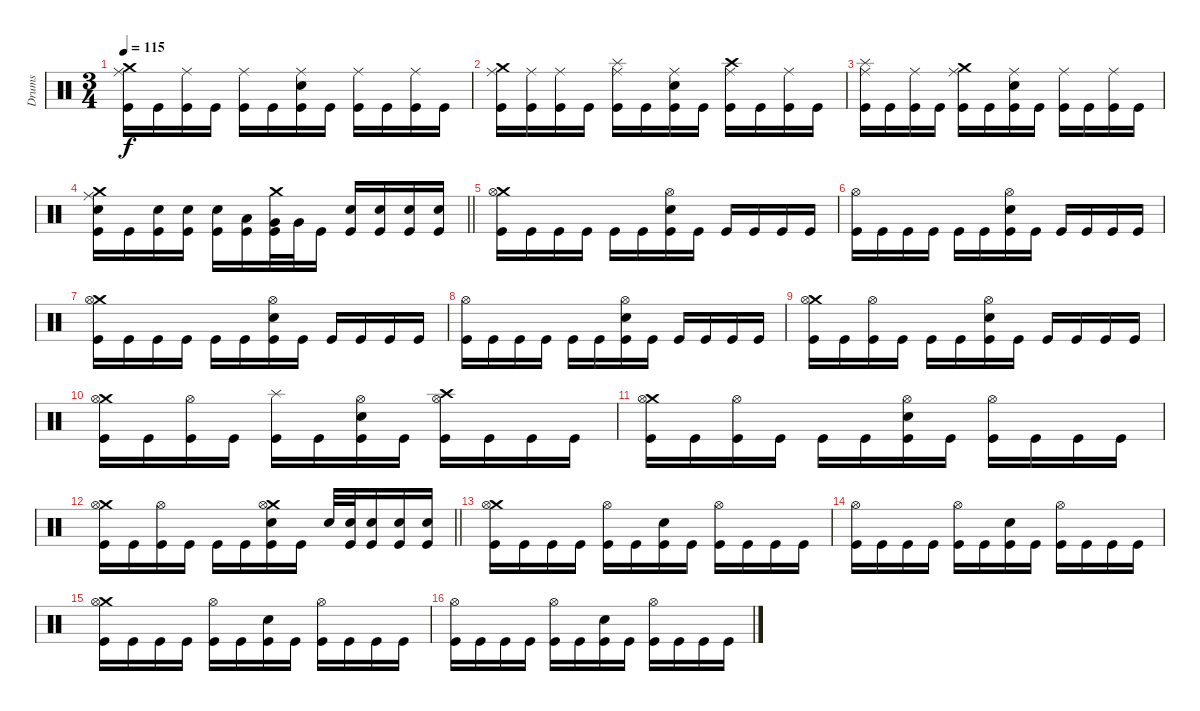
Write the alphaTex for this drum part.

\track ("Drums" "Drums") {instrument percussion}
\staff {score}
\articulation defaults
\ts (3 4)
\tempo 115
\clef neutral
\ks c
("Crash medium (hit)" "Ride (middle)" "Kick (hit)").16{dy f} "Kick (hit)".16 ("Ride (middle)" "Kick (hit)").16 "Kick (hit)".16 ("Ride (middle)" "Kick (hit)").16 "Kick (hit)".16 ("Ride (middle)" "Electric Snare (hit)" "Kick (hit)").16 "Kick (hit)".16 ("Ride (middle)" "Kick (hit)").16 "Kick (hit)".16 ("Ride (middle)" "Kick (hit)").16 "Kick (hit)".16 |
("Crash medium (hit)" "Ride (middle)" "Kick (hit)").16 ("Ride (middle)" "Kick (hit)").16 ("Ride (middle)" "Kick (hit)").16 "Kick (hit)".16 ("Splash (hit)" "Ride (middle)" "Kick (hit)").16 "Kick (hit)".16 ("Ride (middle)" "Electric Snare (hit)" "Kick (hit)").16 "Kick (hit)".16 ("Crash high (hit)" "Ride (middle)" "Kick (hit)").16 "Kick (hit)".16 ("Ride (middle)" "Kick (hit)").16 "Kick (hit)".16 |
("Splash (hit)" "Ride (middle)" "Kick (hit)").16 "Kick (hit)".16 ("Ride (middle)" "Kick (hit)").16 "Kick (hit)".16 ("Crash medium (hit)" "Ride (middle)" "Kick (hit)").16 "Kick (hit)".16 ("Ride (middle)" "Electric Snare (hit)" "Kick (hit)").16 "Kick (hit)".16 ("Ride (middle)" "Kick (hit)").16 "Kick (hit)".16 ("Ride (middle)" "Kick (hit)").16 "Kick (hit)".16 |
\barLineRight lightlight
("Crash medium (hit)" "Electric Snare (hit)" "Ride (middle)" "Kick (hit)").16 "Kick (hit)".16 ("Electric Snare (hit)" "Kick (hit)").16 ("Electric Snare (hit)" "Kick (hit)").16 ("Electric Snare (hit)" "Kick (hit)").16 ("Low Tom (hit)" "Kick (hit)").16 ("Crash medium (hit)" "Very Low Tom (hit)" "Kick (hit)").32 "Very Low Tom (hit)".32 "Kick (hit)".16 ("Electric Snare (hit)" "Kick (hit)").16 ("Electric Snare (hit)" "Kick (hit)").16 ("Electric Snare (hit)" "Kick (hit)").16 ("Electric Snare (hit)" "Kick (hit)").16 |
("Crash medium (hit)" "Hi-Hat (open)" "Kick (hit)").16 "Kick (hit)".16 "Kick (hit)".16 "Kick (hit)".16 "Kick (hit)".16 "Kick (hit)".16 ("Hi-Hat (open)" "Electric Snare (hit)" "Kick (hit)").16 "Kick (hit)".16 "Kick (hit)".16 "Kick (hit)".16 "Kick (hit)".16 "Kick (hit)".16 |
("Hi-Hat (open)" "Kick (hit)").16 "Kick (hit)".16 "Kick (hit)".16 "Kick (hit)".16 "Kick (hit)".16 "Kick (hit)".16 ("Hi-Hat (open)" "Electric Snare (hit)" "Kick (hit)").16 "Kick (hit)".16 "Kick (hit)".16 "Kick (hit)".16 "Kick (hit)".16 "Kick (hit)".16 |
("Crash medium (hit)" "Hi-Hat (open)" "Kick (hit)").16 "Kick (hit)".16 "Kick (hit)".16 "Kick (hit)".16 "Kick (hit)".16 "Kick (hit)".16 ("Hi-Hat (open)" "Electric Snare (hit)" "Kick (hit)").16 "Kick (hit)".16 "Kick (hit)".16 "Kick (hit)".16 "Kick (hit)".16 "Kick (hit)".16 |
("Hi-Hat (open)" "Kick (hit)").16 "Kick (hit)".16 "Kick (hit)".16 "Kick (hit)".16 "Kick (hit)".16 "Kick (hit)".16 ("Hi-Hat (open)" "Electric Snare (hit)" "Kick (hit)").16 "Kick (hit)".16 "Kick (hit)".16 "Kick (hit)".16 "Kick (hit)".16 "Kick (hit)".16 |
("Crash medium (hit)" "Hi-Hat (open)" "Kick (hit)").16 "Kick (hit)".16 ("Hi-Hat (open)" "Kick (hit)").16 "Kick (hit)".16 "Kick (hit)".16 "Kick (hit)".16 ("Hi-Hat (open)" "Electric Snare (hit)" "Kick (hit)").16 "Kick (hit)".16 "Kick (hit)".16 "Kick (hit)".16 "Kick (hit)".16 "Kick (hit)".16 |
("Crash medium (hit)" "Hi-Hat (open)" "Kick (hit)").16 "Kick (hit)".16 ("Hi-Hat (open)" "Kick (hit)").16 "Kick (hit)".16 ("Splash (hit)" "Kick (hit)").16 "Kick (hit)".16 ("Hi-Hat (open)" "Electric Snare (hit)" "Kick (hit)").16 "Kick (hit)".16 ("Crash high (hit)" "Hi-Hat (open)" "Kick (hit)").16 "Kick (hit)".16 "Kick (hit)".16 "Kick (hit)".16 |
("Crash medium (hit)" "Hi-Hat (open)" "Kick (hit)").16 "Kick (hit)".16 ("Hi-Hat (open)" "Kick (hit)").16 "Kick (hit)".16 "Kick (hit)".16 "Kick (hit)".16 ("Hi-Hat (open)" "Electric Snare (hit)" "Kick (hit)").16 "Kick (hit)".16 ("Hi-Hat (open)" "Kick (hit)").16 "Kick (hit)".16 "Kick (hit)".16 "Kick (hit)".16 |
\barLineRight lightlight
("Crash medium (hit)" "Hi-Hat (open)" "Kick (hit)").16 "Kick (hit)".16 ("Hi-Hat (open)" "Kick (hit)").16 "Kick (hit)".16 "Kick (hit)".16 "Kick (hit)".16 ("Crash medium (hit)" "Hi-Hat (open)" "Electric Snare (hit)" "Kick (hit)").16 "Kick (hit)".16 "Electric Snare (hit)".32 ("Electric Snare (hit)" "Kick (hit)").32 ("Electric Snare (hit)" "Kick (hit)").16 ("Electric Snare (hit)" "Kick (hit)").16 ("Electric Snare (hit)" "Kick (hit)").16 |
("Crash medium (hit)" "Hi-Hat (open)" "Kick (hit)").16 "Kick (hit)".16 "Kick (hit)".16 "Kick (hit)".16 ("Hi-Hat (open)" "Kick (hit)").16 "Kick (hit)".16 ("Electric Snare (hit)" "Kick (hit)").16 "Kick (hit)".16 ("Hi-Hat (open)" "Kick (hit)").16 "Kick (hit)".16 "Kick (hit)".16 "Kick (hit)".16 |
("Hi-Hat (open)" "Kick (hit)").16 "Kick (hit)".16 "Kick (hit)".16 "Kick (hit)".16 ("Hi-Hat (open)" "Kick (hit)").16 "Kick (hit)".16 ("Electric Snare (hit)" "Kick (hit)").16 "Kick (hit)".16 ("Hi-Hat (open)" "Kick (hit)").16 "Kick (hit)".16 "Kick (hit)".16 "Kick (hit)".16 |
("Crash medium (hit)" "Hi-Hat (open)" "Kick (hit)").16 "Kick (hit)".16 "Kick (hit)".16 "Kick (hit)".16 ("Hi-Hat (open)" "Kick (hit)").16 "Kick (hit)".16 ("Electric Snare (hit)" "Kick (hit)").16 "Kick (hit)".16 ("Hi-Hat (open)" "Kick (hit)").16 "Kick (hit)".16 "Kick (hit)".16 "Kick (hit)".16 |
("Hi-Hat (open)" "Kick (hit)").16 "Kick (hit)".16 "Kick (hit)".16 "Kick (hit)".16 ("Hi-Hat (open)" "Kick (hit)").16 "Kick (hit)".16 ("Electric Snare (hit)" "Kick (hit)").16 "Kick (hit)".16 ("Hi-Hat (open)" "Kick (hit)").16 "Kick (hit)".16 "Kick (hit)".16 "Kick (hit)".16
